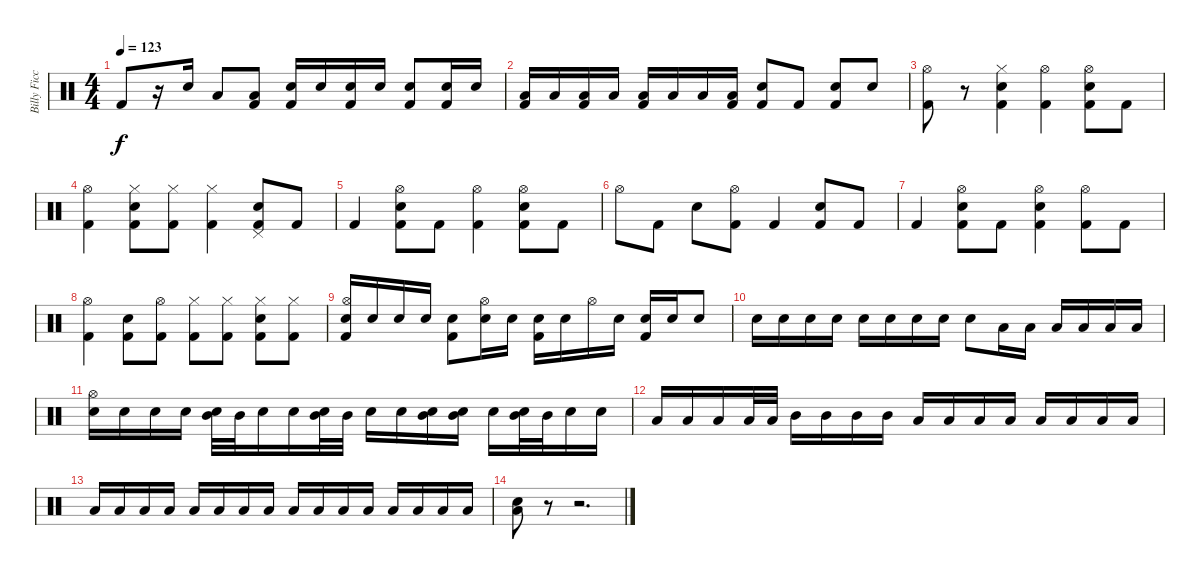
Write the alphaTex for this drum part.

\track ("Billy Ficca" "Billy Ficc") {instrument percussion}
\staff {score}
\articulation defaults
\ts (4 4)
\tempo 123
\clef neutral
\ks c "Kick (hit) 2".8{dy f}
r.16 "Snare (hit) 2".16 "Low Floor Tom (hit)".8 ("Low Floor Tom (hit)" "Kick (hit) 2").8 ("Snare (hit) 2" "Kick (hit) 2").16 "Snare (hit) 2".16 ("Snare (hit) 2" "Kick (hit) 2").16 "Snare (hit) 2".16 ("Snare (hit) 2" "Kick (hit) 2").8 ("Snare (hit) 2" "Kick (hit) 2").16 "Snare (hit) 2".16 |
("Low Floor Tom (hit)" "Kick (hit) 2").16 "Low Floor Tom (hit)".16 ("Low Floor Tom (hit)" "Kick (hit) 2").16 "Low Floor Tom (hit)".16 ("Low Floor Tom (hit)" "Kick (hit) 2").16 "Low Floor Tom (hit)".16 "Low Floor Tom (hit)".16 ("Low Floor Tom (hit)" "Kick (hit) 2").16 ("Snare (hit) 2" "Kick (hit) 2").8 "Kick (hit) 2".8 ("Snare (hit) 2" "Kick (hit) 2").8 "Snare (hit) 2".8 |
("Hi-Hat (open)" "Kick (hit) 2").8 r.8 ("Hi-Hat (closed)" "Snare (hit) 2" "Kick (hit) 2").4 ("Hi-Hat (open)" "Kick (hit) 2").4 ("Hi-Hat (open)" "Snare (hit) 2" "Kick (hit) 2").8 "Kick (hit) 2".8 |
("Hi-Hat (open)" "Kick (hit) 2").4 ("Hi-Hat (closed)" "Snare (hit) 2" "Kick (hit) 2").8 ("Hi-Hat (closed)" "Kick (hit) 2").8 ("Hi-Hat (closed)" "Kick (hit) 2").4 ("Pedal Hi-Hat (hit)" "Snare (hit) 2" "Kick (hit) 2").8 "Kick (hit) 2".8 |
"Kick (hit) 2".4 ("Hi-Hat (open)" "Snare (hit) 2" "Kick (hit) 2").8 "Kick (hit) 2".8 ("Hi-Hat (open)" "Kick (hit) 2").4 ("Hi-Hat (open)" "Snare (hit) 2" "Kick (hit) 2").8 "Kick (hit) 2".8 |
"Hi-Hat (open)".8 "Kick (hit) 2".8 "Snare (hit) 2".8 ("Hi-Hat (open)" "Kick (hit) 2").8 "Kick (hit) 2".4 ("Snare (hit) 2" "Kick (hit) 2").8 "Kick (hit) 2".8 |
"Kick (hit) 2".4 ("Hi-Hat (open)" "Snare (hit) 2" "Kick (hit) 2").8 "Kick (hit) 2".8 ("Hi-Hat (open)" "Snare (hit) 2" "Kick (hit) 2").4 ("Hi-Hat (open)" "Kick (hit) 2").8 "Kick (hit) 2".8 |
("Hi-Hat (open)" "Kick (hit) 2").4 ("Snare (hit) 2" "Kick (hit) 2").8 ("Hi-Hat (open)" "Kick (hit) 2").8 ("Hi-Hat (closed)" "Kick (hit) 2").8 ("Hi-Hat (closed)" "Kick (hit) 2").8 ("Hi-Hat (closed)" "Snare (hit) 2" "Kick (hit) 2").8 ("Hi-Hat (closed)" "Kick (hit) 2").8 |
("Hi-Hat (open)" "Electric Snare (hit)" "Kick (hit) 2").16 "Electric Snare (hit)".16 "Electric Snare (hit)".16 "Electric Snare (hit)".16 ("Electric Snare (hit)" "Kick (hit) 2").8 ("Hi-Hat (open)" "Electric Snare (hit)").16 "Electric Snare (hit)".16 ("Electric Snare (hit)" "Kick (hit) 2").16 "Electric Snare (hit)".16 "Hi-Hat (open)".16 "Electric Snare (hit)".16 ("Electric Snare (hit)" "Kick (hit) 2").16 "Electric Snare (hit)".16 "Electric Snare (hit)".8 |
"Electric Snare (hit)".16 "Electric Snare (hit)".16 "Electric Snare (hit)".16 "Electric Snare (hit)".16 "Electric Snare (hit)".16 "Electric Snare (hit)".16 "Electric Snare (hit)".16 "Electric Snare (hit)".16 "Electric Snare (hit)".8 "Low Floor Tom (hit)".16 "Low Floor Tom (hit)".16 "Low Floor Tom (hit)".16 "Low Floor Tom (hit)".16 "Low Floor Tom (hit)".16 "Low Floor Tom (hit)".16 |
("Hi-Hat (open)" "Snare (hit) 2").16 "Snare (hit) 2".16 "Snare (hit) 2".16 "Snare (hit) 2".16 ("Mid Tom (hit)" "Snare (hit) 2").32 "Mid Tom (hit)".32 "Snare (hit) 2".16 "Snare (hit) 2".16 ("Mid Tom (hit)" "Snare (hit) 2").32 "Mid Tom (hit)".32 "Snare (hit) 2".16 "Snare (hit) 2".16 ("Mid Tom (hit)" "Snare (hit) 2").16 ("Mid Tom (hit)" "Snare (hit) 2").16 "Snare (hit) 2".16 ("Mid Tom (hit)" "Snare (hit) 2").32 "Mid Tom (hit)".32 "Snare (hit) 2".16 "Snare (hit) 2".16 |
"Low Floor Tom (hit)".16 "Low Floor Tom (hit)".16 "Low Floor Tom (hit)".16 "Low Floor Tom (hit)".32 "Low Floor Tom (hit)".32 "Mid Tom (hit)".16 "Mid Tom (hit)".16 "Mid Tom (hit)".16 "Mid Tom (hit)".16 "Low Tom (hit)".16 "Low Tom (hit)".16 "Low Tom (hit)".16 "Low Tom (hit)".16 "Low Floor Tom (hit)".16 "Low Floor Tom (hit)".16 "Low Floor Tom (hit)".16 "Low Floor Tom (hit)".16 |
"Low Tom (hit)".16 "Low Tom (hit)".16 "Low Tom (hit)".16 "Low Tom (hit)".16 "Low Tom (hit)".16 "Low Tom (hit)".16 "Low Tom (hit)".16 "Low Tom (hit)".16 "Low Tom (hit)".16 "Low Tom (hit)".16 "Low Tom (hit)".16 "Low Tom (hit)".16 "Low Tom (hit)".16 "Low Tom (hit)".16 "Low Tom (hit)".16 "Low Tom (hit)".16 |
("Electric Snare (hit)" "Low Tom (hit)").8 r.8 r.2{d}
